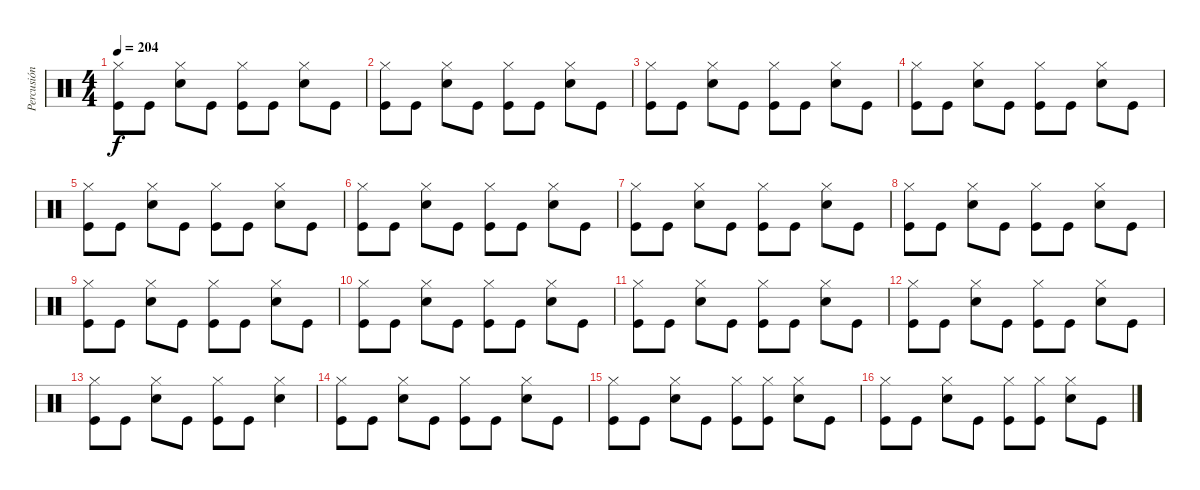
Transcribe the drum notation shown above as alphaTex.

\track ("Percusión" "Percusión") {instrument percussion}
\staff {score}
\articulation defaults
\ts (4 4)
\tempo 204
\clef neutral
\ks c
("Hi-Hat (closed)" "Kick (hit)").8{dy f} "Kick (hit)".8 ("Hi-Hat (closed)" "Snare (hit) 2").8 "Kick (hit)".8 ("Hi-Hat (closed)" "Kick (hit)").8 "Kick (hit)".8 ("Hi-Hat (closed)" "Snare (hit) 2").8 "Kick (hit)".8 |
("Hi-Hat (closed)" "Kick (hit)").8 "Kick (hit)".8 ("Hi-Hat (closed)" "Snare (hit) 2").8 "Kick (hit)".8 ("Hi-Hat (closed)" "Kick (hit)").8 "Kick (hit)".8 ("Hi-Hat (closed)" "Snare (hit) 2").8 "Kick (hit)".8 |
("Hi-Hat (closed)" "Kick (hit)").8 "Kick (hit)".8 ("Hi-Hat (closed)" "Snare (hit) 2").8 "Kick (hit)".8 ("Hi-Hat (closed)" "Kick (hit)").8 "Kick (hit)".8 ("Hi-Hat (closed)" "Snare (hit) 2").8 "Kick (hit)".8 |
("Hi-Hat (closed)" "Kick (hit)").8 "Kick (hit)".8 ("Hi-Hat (closed)" "Snare (hit) 2").8 "Kick (hit)".8 ("Hi-Hat (closed)" "Kick (hit)").8 "Kick (hit)".8 ("Hi-Hat (closed)" "Snare (hit) 2").8 "Kick (hit)".8 |
("Hi-Hat (closed)" "Kick (hit)").8 "Kick (hit)".8 ("Hi-Hat (closed)" "Snare (hit) 2").8 "Kick (hit)".8 ("Hi-Hat (closed)" "Kick (hit)").8 "Kick (hit)".8 ("Hi-Hat (closed)" "Snare (hit) 2").8 "Kick (hit)".8 |
("Hi-Hat (closed)" "Kick (hit)").8 "Kick (hit)".8 ("Hi-Hat (closed)" "Snare (hit) 2").8 "Kick (hit)".8 ("Hi-Hat (closed)" "Kick (hit)").8 "Kick (hit)".8 ("Hi-Hat (closed)" "Snare (hit) 2").8 "Kick (hit)".8 |
("Hi-Hat (closed)" "Kick (hit)").8 "Kick (hit)".8 ("Hi-Hat (closed)" "Snare (hit) 2").8 "Kick (hit)".8 ("Hi-Hat (closed)" "Kick (hit)").8 "Kick (hit)".8 ("Hi-Hat (closed)" "Snare (hit) 2").8 "Kick (hit)".8 |
("Hi-Hat (closed)" "Kick (hit)").8 "Kick (hit)".8 ("Hi-Hat (closed)" "Snare (hit) 2").8 "Kick (hit)".8 ("Hi-Hat (closed)" "Kick (hit)").8 "Kick (hit)".8 ("Hi-Hat (closed)" "Snare (hit) 2").8 "Kick (hit)".8 |
("Hi-Hat (closed)" "Kick (hit)").8 "Kick (hit)".8 ("Hi-Hat (closed)" "Snare (hit) 2").8 "Kick (hit)".8 ("Hi-Hat (closed)" "Kick (hit)").8 "Kick (hit)".8 ("Hi-Hat (closed)" "Snare (hit) 2").8 "Kick (hit)".8 |
("Hi-Hat (closed)" "Kick (hit)").8 "Kick (hit)".8 ("Hi-Hat (closed)" "Snare (hit) 2").8 "Kick (hit)".8 ("Hi-Hat (closed)" "Kick (hit)").8 "Kick (hit)".8 ("Hi-Hat (closed)" "Snare (hit) 2").8 "Kick (hit)".8 |
("Hi-Hat (closed)" "Kick (hit)").8 "Kick (hit)".8 ("Hi-Hat (closed)" "Snare (hit) 2").8 "Kick (hit)".8 ("Hi-Hat (closed)" "Kick (hit)").8 "Kick (hit)".8 ("Hi-Hat (closed)" "Snare (hit) 2").8 "Kick (hit)".8 |
("Hi-Hat (closed)" "Kick (hit)").8 "Kick (hit)".8 ("Hi-Hat (closed)" "Snare (hit) 2").8 "Kick (hit)".8 ("Hi-Hat (closed)" "Kick (hit)").8 "Kick (hit)".8 ("Hi-Hat (closed)" "Snare (hit) 2").8 "Kick (hit)".8 |
("Hi-Hat (closed)" "Kick (hit)").8 "Kick (hit)".8 ("Hi-Hat (closed)" "Snare (hit) 2").8 "Kick (hit)".8 ("Hi-Hat (closed)" "Kick (hit)").8 "Kick (hit)".8 ("Hi-Hat (closed)" "Snare (hit) 2").4 |
("Hi-Hat (closed)" "Kick (hit)").8 "Kick (hit)".8 ("Hi-Hat (closed)" "Snare (hit) 2").8 "Kick (hit)".8 ("Hi-Hat (closed)" "Kick (hit)").8 "Kick (hit)".8 ("Hi-Hat (closed)" "Snare (hit) 2").8 "Kick (hit)".8 |
("Hi-Hat (closed)" "Kick (hit)").8 "Kick (hit)".8 ("Hi-Hat (closed)" "Snare (hit) 2").8 "Kick (hit)".8 ("Hi-Hat (closed)" "Kick (hit)").8 ("Hi-Hat (closed)" "Kick (hit)").8 ("Hi-Hat (closed)" "Snare (hit) 2").8 "Kick (hit)".8 |
("Hi-Hat (closed)" "Kick (hit)").8 "Kick (hit)".8 ("Hi-Hat (closed)" "Snare (hit) 2").8 "Kick (hit)".8 ("Hi-Hat (closed)" "Kick (hit)").8 ("Hi-Hat (closed)" "Kick (hit)").8 ("Hi-Hat (closed)" "Snare (hit) 2").8 "Kick (hit)".8
